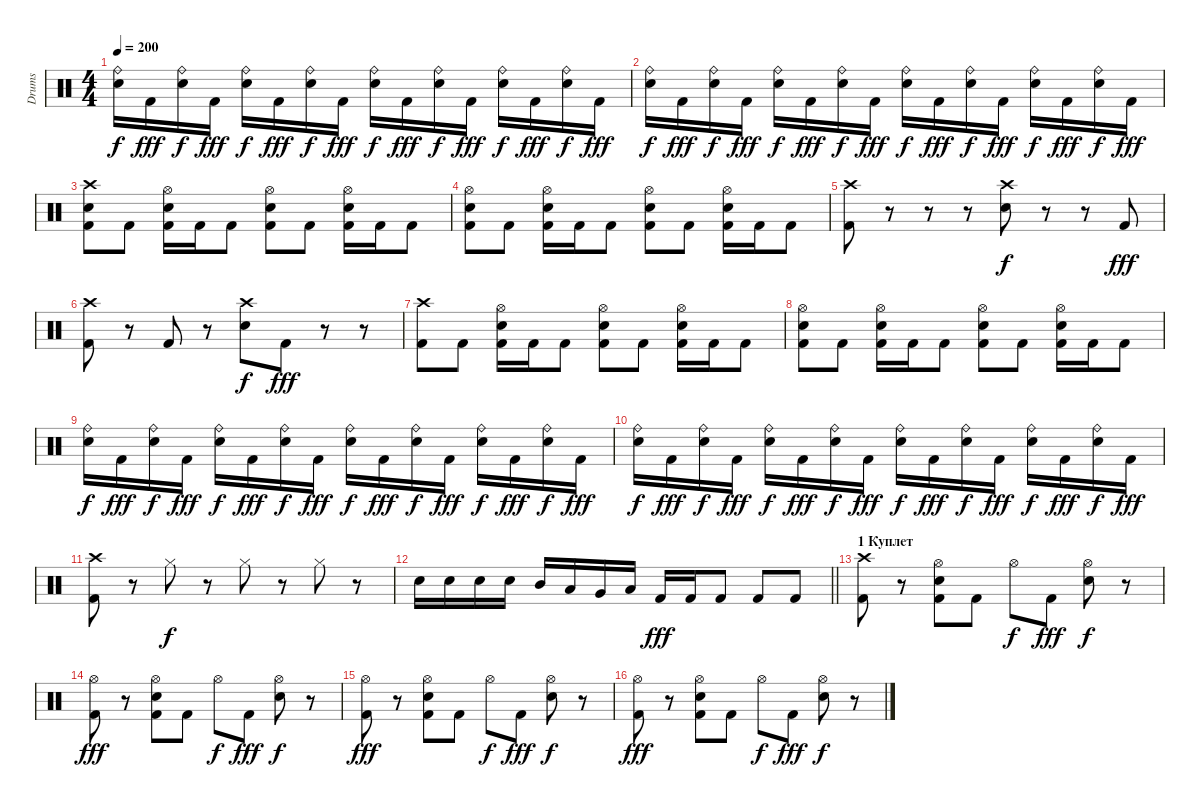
\track ("Drums" "Drums") {instrument percussion}
\staff {score}
\articulation defaults
\ts (4 4)
\tempo 200
\clef neutral
\ks c
("Ride (bell)" "Electric Snare (hit)").16{dy f} "Kick (hit) 2".16{dy fff} ("Ride (bell)" "Electric Snare (hit)").16{dy f} "Kick (hit) 2".16{dy fff} ("Ride (bell)" "Electric Snare (hit)").16{dy f} "Kick (hit) 2".16{dy fff} ("Ride (bell)" "Electric Snare (hit)").16{dy f} "Kick (hit) 2".16{dy fff} ("Ride (bell)" "Electric Snare (hit)").16{dy f} "Kick (hit) 2".16{dy fff} ("Ride (bell)" "Electric Snare (hit)").16{dy f} "Kick (hit) 2".16{dy fff} ("Ride (bell)" "Electric Snare (hit)").16{dy f} "Kick (hit) 2".16{dy fff} ("Ride (bell)" "Electric Snare (hit)").16{dy f} "Kick (hit) 2".16{dy fff} |
("Ride (bell)" "Electric Snare (hit)").16{dy f} "Kick (hit) 2".16{dy fff} ("Ride (bell)" "Electric Snare (hit)").16{dy f} "Kick (hit) 2".16{dy fff} ("Ride (bell)" "Electric Snare (hit)").16{dy f} "Kick (hit) 2".16{dy fff} ("Ride (bell)" "Electric Snare (hit)").16{dy f} "Kick (hit) 2".16{dy fff} ("Ride (bell)" "Electric Snare (hit)").16{dy f} "Kick (hit) 2".16{dy fff} ("Ride (bell)" "Electric Snare (hit)").16{dy f} "Kick (hit) 2".16{dy fff} ("Ride (bell)" "Electric Snare (hit)").16{dy f} "Kick (hit) 2".16{dy fff} ("Ride (bell)" "Electric Snare (hit)").16{dy f} "Kick (hit) 2".16{dy fff} |
("Crash high (hit)" "Electric Snare (hit)" "Kick (hit) 2").8 "Kick (hit) 2".8 ("Hi-Hat (open)" "Electric Snare (hit)" "Kick (hit) 2").16 "Kick (hit) 2".16 "Kick (hit) 2".8 ("Hi-Hat (open)" "Electric Snare (hit)" "Kick (hit) 2").8 "Kick (hit) 2".8 ("Hi-Hat (open)" "Electric Snare (hit)" "Kick (hit) 2").16 "Kick (hit) 2".16 "Kick (hit) 2".8 |
("Hi-Hat (open)" "Electric Snare (hit)" "Kick (hit) 2").8 "Kick (hit) 2".8 ("Hi-Hat (open)" "Electric Snare (hit)" "Kick (hit) 2").16 "Kick (hit) 2".16 "Kick (hit) 2".8 ("Hi-Hat (open)" "Electric Snare (hit)" "Kick (hit) 2").8 "Kick (hit) 2".8 ("Hi-Hat (open)" "Electric Snare (hit)" "Kick (hit) 2").16 "Kick (hit) 2".16 "Kick (hit) 2".8 |
("Crash high (hit)" "Kick (hit) 2").8 r.8 r.8 r.8 ("Crash high (hit)" "Electric Snare (hit)").8{dy f} r.8 r.8 "Kick (hit) 2".8{dy fff} |
("Crash high (hit)" "Kick (hit) 2").8 r.8 "Kick (hit) 2".8 r.8 ("Crash high (hit)" "Electric Snare (hit)").8{dy f} "Kick (hit) 2".8{dy fff} r.8 r.8 |
("Crash high (hit)" "Kick (hit) 2").8 "Kick (hit) 2".8 ("Hi-Hat (open)" "Electric Snare (hit)" "Kick (hit) 2").16 "Kick (hit) 2".16 "Kick (hit) 2".8 ("Hi-Hat (open)" "Electric Snare (hit)" "Kick (hit) 2").8 "Kick (hit) 2".8 ("Hi-Hat (open)" "Electric Snare (hit)" "Kick (hit) 2").16 "Kick (hit) 2".16 "Kick (hit) 2".8 |
("Hi-Hat (open)" "Electric Snare (hit)" "Kick (hit) 2").8 "Kick (hit) 2".8 ("Hi-Hat (open)" "Electric Snare (hit)" "Kick (hit) 2").16 "Kick (hit) 2".16 "Kick (hit) 2".8 ("Hi-Hat (open)" "Electric Snare (hit)" "Kick (hit) 2").8 "Kick (hit) 2".8 ("Hi-Hat (open)" "Electric Snare (hit)" "Kick (hit) 2").16 "Kick (hit) 2".16 "Kick (hit) 2".8 |
("Ride (bell)" "Electric Snare (hit)").16{dy f} "Kick (hit) 2".16{dy fff} ("Ride (bell)" "Electric Snare (hit)").16{dy f} "Kick (hit) 2".16{dy fff} ("Ride (bell)" "Electric Snare (hit)").16{dy f} "Kick (hit) 2".16{dy fff} ("Ride (bell)" "Electric Snare (hit)").16{dy f} "Kick (hit) 2".16{dy fff} ("Ride (bell)" "Electric Snare (hit)").16{dy f} "Kick (hit) 2".16{dy fff} ("Ride (bell)" "Electric Snare (hit)").16{dy f} "Kick (hit) 2".16{dy fff} ("Ride (bell)" "Electric Snare (hit)").16{dy f} "Kick (hit) 2".16{dy fff} ("Ride (bell)" "Electric Snare (hit)").16{dy f} "Kick (hit) 2".16{dy fff} |
("Ride (bell)" "Electric Snare (hit)").16{dy f} "Kick (hit) 2".16{dy fff} ("Ride (bell)" "Electric Snare (hit)").16{dy f} "Kick (hit) 2".16{dy fff} ("Ride (bell)" "Electric Snare (hit)").16{dy f} "Kick (hit) 2".16{dy fff} ("Ride (bell)" "Electric Snare (hit)").16{dy f} "Kick (hit) 2".16{dy fff} ("Ride (bell)" "Electric Snare (hit)").16{dy f} "Kick (hit) 2".16{dy fff} ("Ride (bell)" "Electric Snare (hit)").16{dy f} "Kick (hit) 2".16{dy fff} ("Ride (bell)" "Electric Snare (hit)").16{dy f} "Kick (hit) 2".16{dy fff} ("Ride (bell)" "Electric Snare (hit)").16{dy f} "Kick (hit) 2".16{dy fff} |
("Crash high (hit)" "Kick (hit) 2").8 r.8 "Hi-Hat (closed)".8{dy f} r.8 "Hi-Hat (closed)".8 r.8 "Hi-Hat (closed)".8 r.8 |
\barLineRight lightlight "Electric Snare (hit)".16 "Electric Snare (hit)".16 "Electric Snare (hit)".16 "Electric Snare (hit)".16 "Mid Tom (hit)".16 "Low Tom (hit)".16 "Very Low Tom (hit)".16 "Low Floor Tom (hit)".16 "Kick (hit) 2".16{dy fff} "Kick (hit) 2".16 "Kick (hit) 2".8 "Kick (hit) 2".8 "Kick (hit) 2".8
|
\section ("" "1 Куплет")
("Crash high (hit)" "Kick (hit) 2").8 r.8 ("Hi-Hat (open)" "Electric Snare (hit)" "Kick (hit) 2").8 "Kick (hit) 2".8 "Hi-Hat (open)".8{dy f} "Kick (hit) 2".8{dy fff} ("Hi-Hat (open)" "Electric Snare (hit)").8{dy f} r.8 |
("Hi-Hat (open)" "Kick (hit) 2").8{dy fff} r.8 ("Hi-Hat (open)" "Electric Snare (hit)" "Kick (hit) 2").8 "Kick (hit) 2".8 "Hi-Hat (open)".8{dy f} "Kick (hit) 2".8{dy fff} ("Hi-Hat (open)" "Electric Snare (hit)").8{dy f} r.8 |
("Hi-Hat (open)" "Kick (hit) 2").8{dy fff} r.8 ("Hi-Hat (open)" "Electric Snare (hit)" "Kick (hit) 2").8 "Kick (hit) 2".8 "Hi-Hat (open)".8{dy f} "Kick (hit) 2".8{dy fff} ("Hi-Hat (open)" "Electric Snare (hit)").8{dy f} r.8 |
("Hi-Hat (open)" "Kick (hit) 2").8{dy fff} r.8 ("Hi-Hat (open)" "Electric Snare (hit)" "Kick (hit) 2").8 "Kick (hit) 2".8 "Hi-Hat (open)".8{dy f} "Kick (hit) 2".8{dy fff} ("Hi-Hat (open)" "Electric Snare (hit)").8{dy f} r.8
